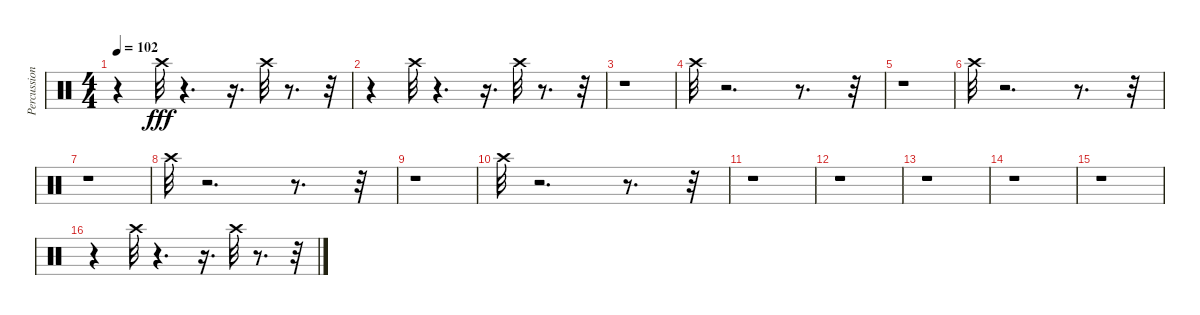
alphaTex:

\track ("Percussion" "Percussion") {instrument percussion}
\staff {score}
\articulation defaults
\ts (4 4)
\tempo 102
\clef neutral
\ks c
r.4{dy fff} "Crash high (hit)".32 r.4{d} r.16{d} "Crash high (hit)".32 r.8{d} r.32 |
r.4 "Crash high (hit)".32 r.4{d} r.16{d} "Crash high (hit)".32 r.8{d} r.32 |
r.1 |
"Crash high (hit)".32 r.2{d} r.8{d} r.32 |
r.1 |
"Crash high (hit)".32 r.2{d} r.8{d} r.32 |
r.1 |
"Crash high (hit)".32 r.2{d} r.8{d} r.32 |
r.1 |
"Crash high (hit)".32 r.2{d} r.8{d} r.32 |
r.1 |
r.1 |
r.1 |
r.1 |
r.1 |
r.4 "Crash high (hit)".32 r.4{d} r.16{d} "Crash high (hit)".32 r.8{d} r.32
